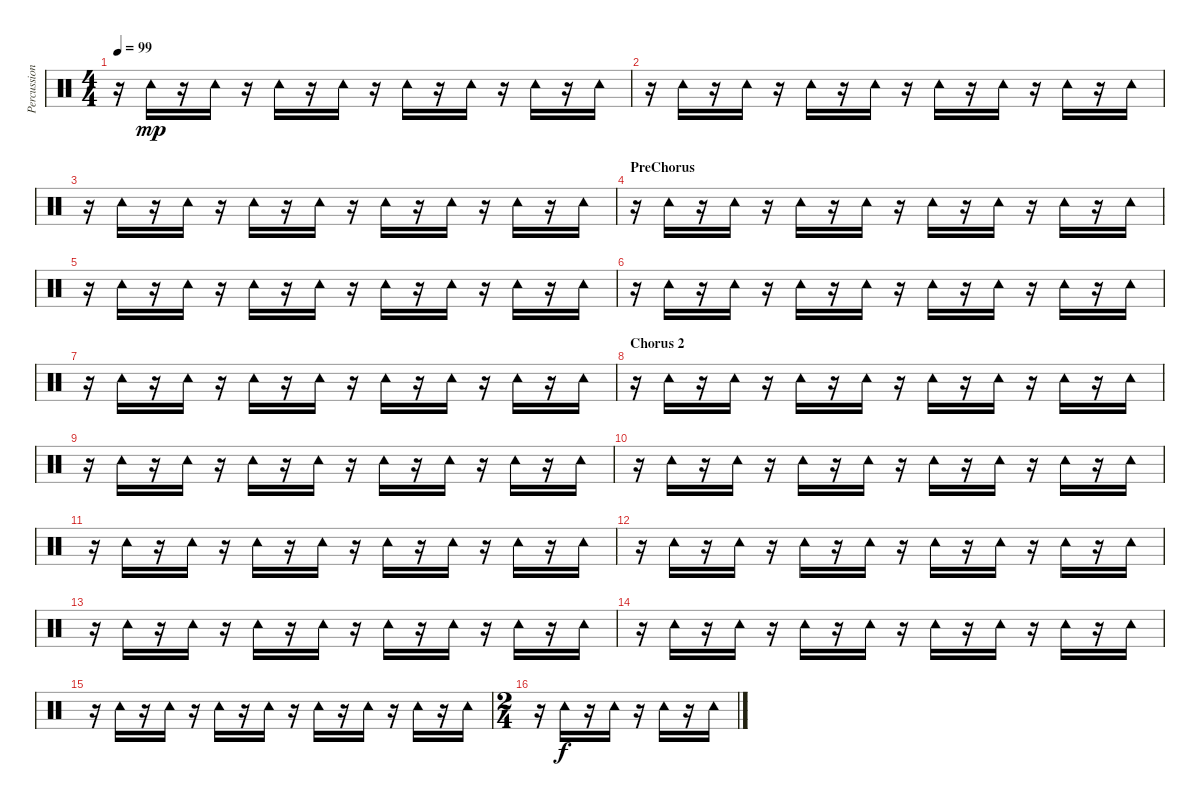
\track ("Percussion" "Percussion") {instrument percussion}
\staff {score}
\articulation defaults
\ts (4 4)
\tempo 99
\clef neutral
\ks c
r.16{dy mp} "Tambourine (hit)".16 r.16 "Tambourine (hit)".16 r.16 "Tambourine (hit)".16 r.16 "Tambourine (hit)".16 r.16 "Tambourine (hit)".16 r.16 "Tambourine (hit)".16 r.16 "Tambourine (hit)".16 r.16 "Tambourine (hit)".16 |
r.16 "Tambourine (hit)".16 r.16 "Tambourine (hit)".16 r.16 "Tambourine (hit)".16 r.16 "Tambourine (hit)".16 r.16 "Tambourine (hit)".16 r.16 "Tambourine (hit)".16 r.16 "Tambourine (hit)".16 r.16 "Tambourine (hit)".16 |
r.16 "Tambourine (hit)".16 r.16 "Tambourine (hit)".16 r.16 "Tambourine (hit)".16 r.16 "Tambourine (hit)".16 r.16 "Tambourine (hit)".16 r.16 "Tambourine (hit)".16 r.16 "Tambourine (hit)".16 r.16 "Tambourine (hit)".16 |
\section ("" "PreChorus")
r.16 "Tambourine (hit)".16 r.16 "Tambourine (hit)".16 r.16 "Tambourine (hit)".16 r.16 "Tambourine (hit)".16 r.16 "Tambourine (hit)".16 r.16 "Tambourine (hit)".16 r.16 "Tambourine (hit)".16 r.16 "Tambourine (hit)".16 |
r.16 "Tambourine (hit)".16 r.16 "Tambourine (hit)".16 r.16 "Tambourine (hit)".16 r.16 "Tambourine (hit)".16 r.16 "Tambourine (hit)".16 r.16 "Tambourine (hit)".16 r.16 "Tambourine (hit)".16 r.16 "Tambourine (hit)".16 |
r.16 "Tambourine (hit)".16 r.16 "Tambourine (hit)".16 r.16 "Tambourine (hit)".16 r.16 "Tambourine (hit)".16 r.16 "Tambourine (hit)".16 r.16 "Tambourine (hit)".16 r.16 "Tambourine (hit)".16 r.16 "Tambourine (hit)".16 |
r.16 "Tambourine (hit)".16 r.16 "Tambourine (hit)".16 r.16 "Tambourine (hit)".16 r.16 "Tambourine (hit)".16 r.16 "Tambourine (hit)".16 r.16 "Tambourine (hit)".16 r.16 "Tambourine (hit)".16 r.16 "Tambourine (hit)".16 |
\section ("" "Chorus 2")
r.16 "Tambourine (hit)".16 r.16 "Tambourine (hit)".16 r.16 "Tambourine (hit)".16 r.16 "Tambourine (hit)".16 r.16 "Tambourine (hit)".16 r.16 "Tambourine (hit)".16 r.16 "Tambourine (hit)".16 r.16 "Tambourine (hit)".16 |
r.16 "Tambourine (hit)".16 r.16 "Tambourine (hit)".16 r.16 "Tambourine (hit)".16 r.16 "Tambourine (hit)".16 r.16 "Tambourine (hit)".16 r.16 "Tambourine (hit)".16 r.16 "Tambourine (hit)".16 r.16 "Tambourine (hit)".16 |
r.16 "Tambourine (hit)".16 r.16 "Tambourine (hit)".16 r.16 "Tambourine (hit)".16 r.16 "Tambourine (hit)".16 r.16 "Tambourine (hit)".16 r.16 "Tambourine (hit)".16 r.16 "Tambourine (hit)".16 r.16 "Tambourine (hit)".16 |
r.16 "Tambourine (hit)".16 r.16 "Tambourine (hit)".16 r.16 "Tambourine (hit)".16 r.16 "Tambourine (hit)".16 r.16 "Tambourine (hit)".16 r.16 "Tambourine (hit)".16 r.16 "Tambourine (hit)".16 r.16 "Tambourine (hit)".16 |
r.16 "Tambourine (hit)".16 r.16 "Tambourine (hit)".16 r.16 "Tambourine (hit)".16 r.16 "Tambourine (hit)".16 r.16 "Tambourine (hit)".16 r.16 "Tambourine (hit)".16 r.16 "Tambourine (hit)".16 r.16 "Tambourine (hit)".16 |
r.16 "Tambourine (hit)".16 r.16 "Tambourine (hit)".16 r.16 "Tambourine (hit)".16 r.16 "Tambourine (hit)".16 r.16 "Tambourine (hit)".16 r.16 "Tambourine (hit)".16 r.16 "Tambourine (hit)".16 r.16 "Tambourine (hit)".16 |
r.16 "Tambourine (hit)".16 r.16 "Tambourine (hit)".16 r.16 "Tambourine (hit)".16 r.16 "Tambourine (hit)".16 r.16 "Tambourine (hit)".16 r.16 "Tambourine (hit)".16 r.16 "Tambourine (hit)".16 r.16 "Tambourine (hit)".16 |
r.16 "Tambourine (hit)".16 r.16 "Tambourine (hit)".16 r.16 "Tambourine (hit)".16 r.16 "Tambourine (hit)".16 r.16 "Tambourine (hit)".16 r.16 "Tambourine (hit)".16 r.16 "Tambourine (hit)".16 r.16 "Tambourine (hit)".16 |
\ts (2 4)
r.16 "Tambourine (hit)".16{dy f} r.16 "Tambourine (hit)".16 r.16 "Tambourine (hit)".16 r.16 "Tambourine (hit)".16
